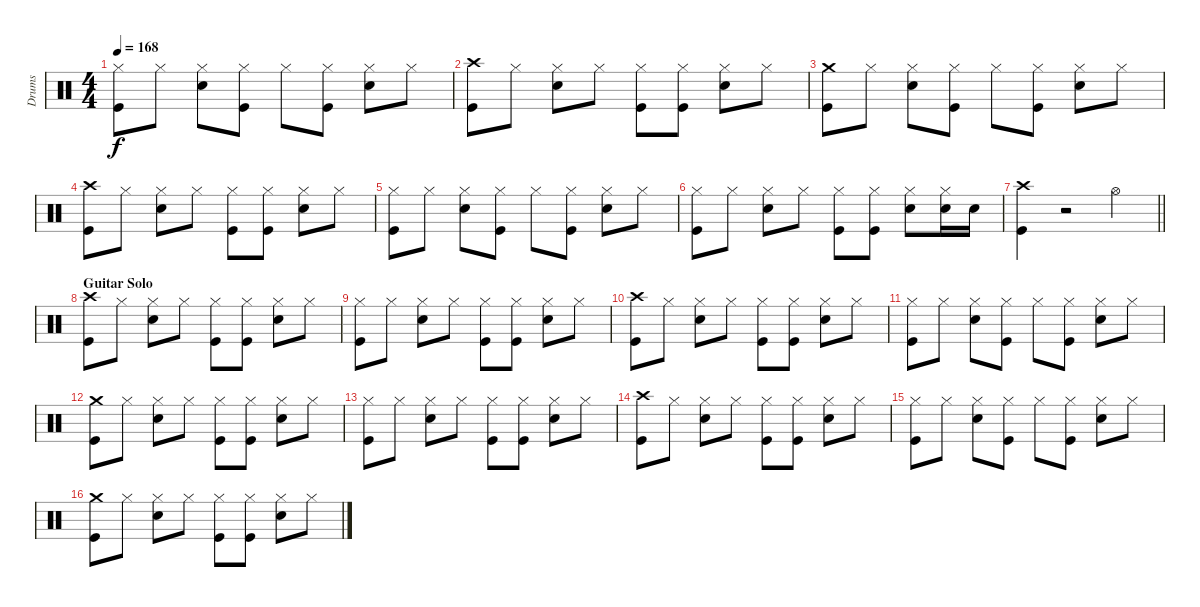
\track ("Drums" "Drums") {instrument percussion}
\staff {score}
\articulation defaults
\ts (4 4)
\tempo 168
\clef neutral
\ks c
("Hi-Hat (closed)" "Kick (hit)").8{dy f} "Hi-Hat (closed)".8 ("Hi-Hat (closed)" "Snare (hit) 2").8 ("Hi-Hat (closed)" "Kick (hit)").8 "Hi-Hat (closed)".8 ("Hi-Hat (closed)" "Kick (hit)").8 ("Hi-Hat (closed)" "Snare (hit) 2").8 "Hi-Hat (closed)".8 |
("Crash high (hit)" "Kick (hit)").8 "Hi-Hat (closed)".8 ("Hi-Hat (closed)" "Snare (hit) 2").8 "Hi-Hat (closed)".8 ("Hi-Hat (closed)" "Kick (hit)").8 ("Hi-Hat (closed)" "Kick (hit)").8 ("Hi-Hat (closed)" "Snare (hit) 2").8 "Hi-Hat (closed)".8 |
("Crash medium (hit)" "Kick (hit)").8 "Hi-Hat (closed)".8 ("Hi-Hat (closed)" "Snare (hit) 2").8 ("Hi-Hat (closed)" "Kick (hit)").8 "Hi-Hat (closed)".8 ("Hi-Hat (closed)" "Kick (hit)").8 ("Hi-Hat (closed)" "Snare (hit) 2").8 "Hi-Hat (closed)".8 |
("Crash high (hit)" "Kick (hit)").8 "Hi-Hat (closed)".8 ("Hi-Hat (closed)" "Snare (hit) 2").8 "Hi-Hat (closed)".8 ("Hi-Hat (closed)" "Kick (hit)").8 ("Hi-Hat (closed)" "Kick (hit)").8 ("Hi-Hat (closed)" "Snare (hit) 2").8 "Hi-Hat (closed)".8 |
("Hi-Hat (closed)" "Kick (hit)").8 "Hi-Hat (closed)".8 ("Hi-Hat (closed)" "Snare (hit) 2").8 ("Hi-Hat (closed)" "Kick (hit)").8 "Hi-Hat (closed)".8 ("Hi-Hat (closed)" "Kick (hit)").8 ("Hi-Hat (closed)" "Snare (hit) 2").8 "Hi-Hat (closed)".8 |
("Hi-Hat (closed)" "Kick (hit)").8 "Hi-Hat (closed)".8 ("Hi-Hat (closed)" "Snare (hit) 2").8 "Hi-Hat (closed)".8 ("Hi-Hat (closed)" "Kick (hit)").8 ("Hi-Hat (closed)" "Kick (hit)").8 ("Hi-Hat (closed)" "Snare (hit) 2").8 ("Hi-Hat (closed)" "Snare (hit) 2").16 "Snare (hit) 2".16 |
\barLineRight lightlight
("Crash high (hit)" "Kick (hit)").4 r.2 "Hi-Hat (open)".4 |
\section ("" "Guitar Solo")
("Crash high (hit)" "Kick (hit)").8 "Hi-Hat (closed)".8 ("Hi-Hat (closed)" "Snare (hit) 2").8 "Hi-Hat (closed)".8 ("Hi-Hat (closed)" "Kick (hit)").8 ("Hi-Hat (closed)" "Kick (hit)").8 ("Hi-Hat (closed)" "Snare (hit) 2").8 "Hi-Hat (closed)".8 |
("Hi-Hat (closed)" "Kick (hit)").8 "Hi-Hat (closed)".8 ("Hi-Hat (closed)" "Snare (hit) 2").8 "Hi-Hat (closed)".8 ("Hi-Hat (closed)" "Kick (hit)").8 ("Hi-Hat (closed)" "Kick (hit)").8 ("Hi-Hat (closed)" "Snare (hit) 2").8 "Hi-Hat (closed)".8 |
("Crash high (hit)" "Kick (hit)").8 "Hi-Hat (closed)".8 ("Hi-Hat (closed)" "Snare (hit) 2").8 "Hi-Hat (closed)".8 ("Hi-Hat (closed)" "Kick (hit)").8 ("Hi-Hat (closed)" "Kick (hit)").8 ("Hi-Hat (closed)" "Snare (hit) 2").8 "Hi-Hat (closed)".8 |
("Hi-Hat (closed)" "Kick (hit)").8 "Hi-Hat (closed)".8 ("Hi-Hat (closed)" "Snare (hit) 2").8 ("Hi-Hat (closed)" "Kick (hit)").8 "Hi-Hat (closed)".8 ("Hi-Hat (closed)" "Kick (hit)").8 ("Hi-Hat (closed)" "Snare (hit) 2").8 "Hi-Hat (closed)".8 |
("Crash medium (hit)" "Kick (hit)").8 "Hi-Hat (closed)".8 ("Hi-Hat (closed)" "Snare (hit) 2").8 "Hi-Hat (closed)".8 ("Hi-Hat (closed)" "Kick (hit)").8 ("Hi-Hat (closed)" "Kick (hit)").8 ("Hi-Hat (closed)" "Snare (hit) 2").8 "Hi-Hat (closed)".8 |
("Hi-Hat (closed)" "Kick (hit)").8 "Hi-Hat (closed)".8 ("Hi-Hat (closed)" "Snare (hit) 2").8 "Hi-Hat (closed)".8 ("Hi-Hat (closed)" "Kick (hit)").8 ("Hi-Hat (closed)" "Kick (hit)").8 ("Hi-Hat (closed)" "Snare (hit) 2").8 "Hi-Hat (closed)".8 |
("Crash high (hit)" "Kick (hit)").8 "Hi-Hat (closed)".8 ("Hi-Hat (closed)" "Snare (hit) 2").8 "Hi-Hat (closed)".8 ("Hi-Hat (closed)" "Kick (hit)").8 ("Hi-Hat (closed)" "Kick (hit)").8 ("Hi-Hat (closed)" "Snare (hit) 2").8 "Hi-Hat (closed)".8 |
("Hi-Hat (closed)" "Kick (hit)").8 "Hi-Hat (closed)".8 ("Hi-Hat (closed)" "Snare (hit) 2").8 ("Hi-Hat (closed)" "Kick (hit)").8 "Hi-Hat (closed)".8 ("Hi-Hat (closed)" "Kick (hit)").8 ("Hi-Hat (closed)" "Snare (hit) 2").8 "Hi-Hat (closed)".8 |
("Crash medium (hit)" "Kick (hit)").8 "Hi-Hat (closed)".8 ("Hi-Hat (closed)" "Snare (hit) 2").8 "Hi-Hat (closed)".8 ("Hi-Hat (closed)" "Kick (hit)").8 ("Hi-Hat (closed)" "Kick (hit)").8 ("Hi-Hat (closed)" "Snare (hit) 2").8 "Hi-Hat (closed)".8
